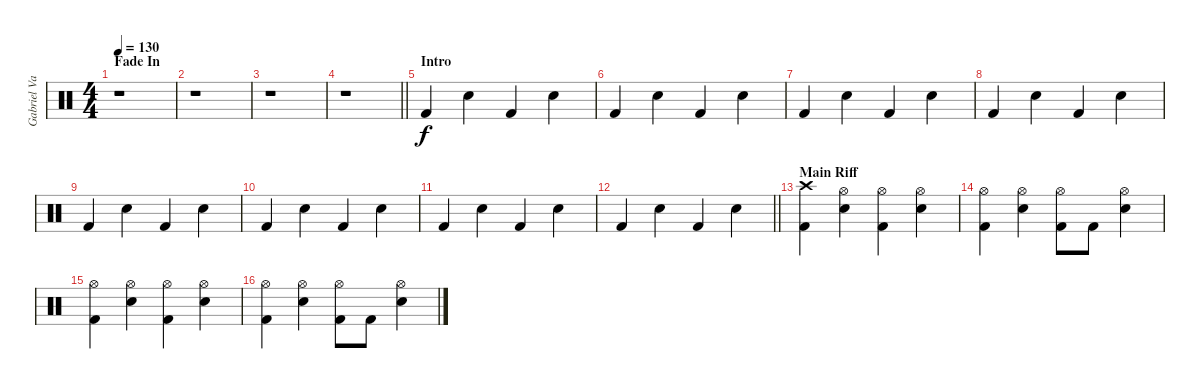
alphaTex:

\track ("Gabriel Valerio" "Gabriel Va") {instrument percussion}
\staff {score}
\articulation defaults
\ts (4 4)
\section ("" "Fade In")
\tempo 130
\clef neutral
\ks c
r.1{dy f} |
r.1 |
r.1 |
\barLineRight lightlight
r.1 |
\section ("" "Intro")
"Kick (hit) 2".4 "Snare (hit) 2".4 "Kick (hit) 2".4 "Snare (hit) 2".4 |
"Kick (hit) 2".4 "Snare (hit) 2".4 "Kick (hit) 2".4 "Snare (hit) 2".4 |
"Kick (hit) 2".4 "Snare (hit) 2".4 "Kick (hit) 2".4 "Snare (hit) 2".4 |
"Kick (hit) 2".4 "Snare (hit) 2".4 "Kick (hit) 2".4 "Snare (hit) 2".4 |
"Kick (hit) 2".4 "Snare (hit) 2".4 "Kick (hit) 2".4 "Snare (hit) 2".4 |
"Kick (hit) 2".4 "Snare (hit) 2".4 "Kick (hit) 2".4 "Snare (hit) 2".4 |
"Kick (hit) 2".4 "Snare (hit) 2".4 "Kick (hit) 2".4 "Snare (hit) 2".4 |
\barLineRight lightlight "Kick (hit) 2".4 "Snare (hit) 2".4 "Kick (hit) 2".4 "Snare (hit) 2".4
|
\section ("" "Main Riff")
("Crash high (hit)" "Kick (hit) 2").4 ("Hi-Hat (open)" "Snare (hit) 2").4 ("Hi-Hat (open)" "Kick (hit) 2").4 ("Hi-Hat (open)" "Snare (hit) 2").4 |
("Hi-Hat (open)" "Kick (hit) 2").4 ("Hi-Hat (open)" "Snare (hit) 2").4 ("Hi-Hat (open)" "Kick (hit) 2").8 "Kick (hit) 2".8 ("Hi-Hat (open)" "Snare (hit) 2").4 |
("Hi-Hat (open)" "Kick (hit) 2").4 ("Hi-Hat (open)" "Snare (hit) 2").4 ("Hi-Hat (open)" "Kick (hit) 2").4 ("Hi-Hat (open)" "Snare (hit) 2").4 |
("Hi-Hat (open)" "Kick (hit) 2").4 ("Hi-Hat (open)" "Snare (hit) 2").4 ("Hi-Hat (open)" "Kick (hit) 2").8 "Kick (hit) 2".8 ("Hi-Hat (open)" "Snare (hit) 2").4
